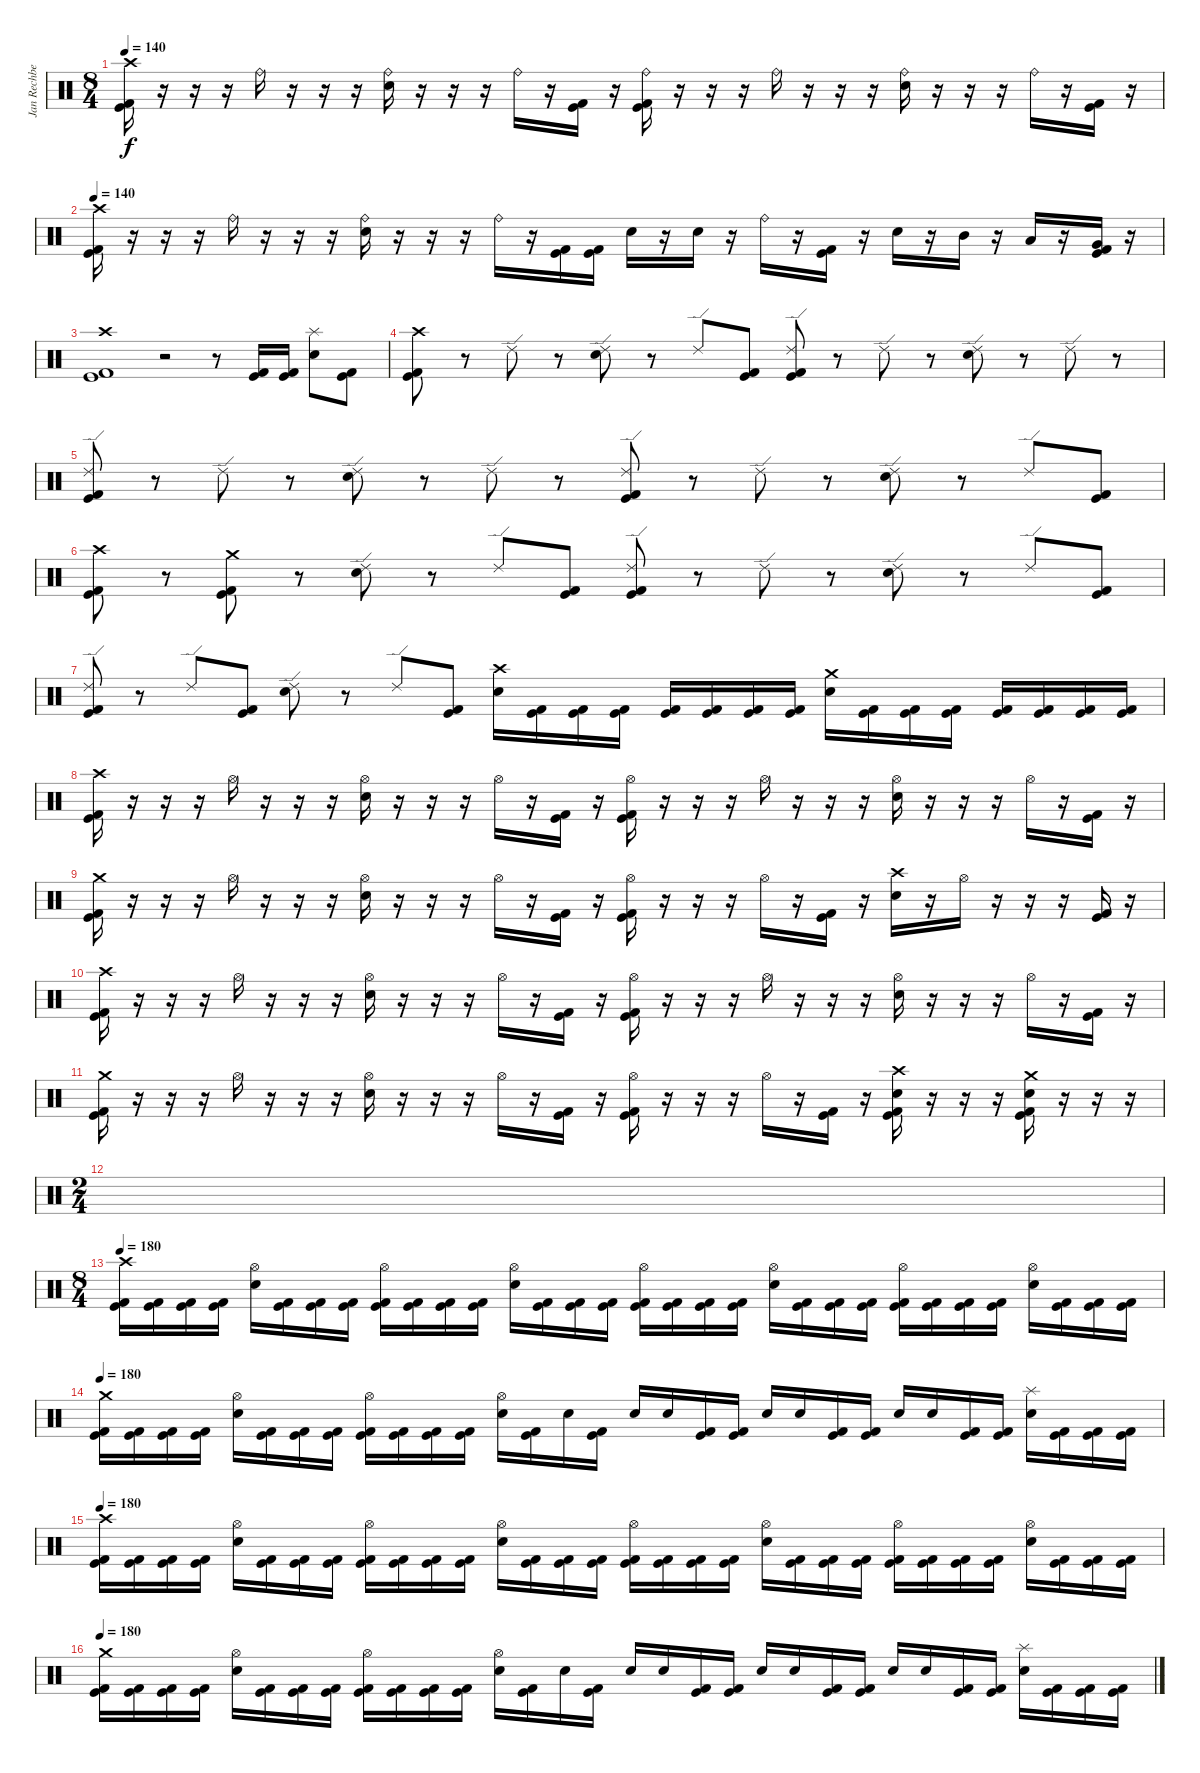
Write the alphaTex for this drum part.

\track ("Jan Rechberger" "Jan Rechbe") {instrument percussion}
\staff {score}
\articulation defaults
\ts (8 4)
\tempo 140
\clef neutral
\ks c
("Crash high (hit)" "Kick (hit) 2" "Kick (hit)").16{dy f} r.16 r.16 r.16 "Ride (bell)".16 r.16 r.16 r.16 ("Ride (bell)" "Electric Snare (hit)").16 r.16 r.16 r.16 "Ride (bell)".16 r.16 ("Kick (hit) 2" "Kick (hit)").16 r.16 ("Ride (bell)" "Kick (hit) 2" "Kick (hit)").16 r.16 r.16 r.16 "Ride (bell)".16 r.16 r.16 r.16 ("Ride (bell)" "Electric Snare (hit)").16 r.16 r.16 r.16 "Ride (bell)".16 r.16 ("Kick (hit) 2" "Kick (hit)").16 r.16 |
\tempo 140
("Crash high (hit)" "Kick (hit) 2" "Kick (hit)").16 r.16 r.16 r.16 "Ride (bell)".16 r.16 r.16 r.16 ("Ride (bell)" "Electric Snare (hit)").16 r.16 r.16 r.16 "Ride (bell)".16 r.16 ("Kick (hit) 2" "Kick (hit)").16 ("Kick (hit) 2" "Kick (hit)").16 "Electric Snare (hit)".16 r.16 "Electric Snare (hit)".16 r.16 "Ride (bell)".16 r.16 ("Kick (hit) 2" "Kick (hit)").16 r.16 "Electric Snare (hit)".16 r.16 "Mid Tom (hit)".16 r.16 "Low Tom (hit)".16 r.16 ("Very Low Tom (hit)" "Kick (hit) 2" "Kick (hit)").16 r.16 |
("Crash high (hit)" "Kick (hit) 2" "Kick (hit)").1 r.2 r.8 ("Kick (hit) 2" "Kick (hit)").16 ("Kick (hit) 2" "Kick (hit)").16 ("Splash (hit)" "Electric Snare (hit)").8 ("Kick (hit) 2" "Kick (hit)").8 |
("Crash high (hit)" "Kick (hit) 2" "Kick (hit)").8 r.8 "Ride (edge) 2".8 r.8 ("Ride (edge) 2" "Electric Snare (hit)").8 r.8 "Ride (edge) 2".8 ("Kick (hit) 2" "Kick (hit)").8 ("Ride (edge) 2" "Kick (hit) 2" "Kick (hit)").8 r.8 "Ride (edge) 2".8 r.8 ("Ride (edge) 2" "Electric Snare (hit)").8 r.8 "Ride (edge) 2".8 r.8 |
("Ride (edge) 2" "Kick (hit) 2" "Kick (hit)").8 r.8 "Ride (edge) 2".8 r.8 ("Ride (edge) 2" "Electric Snare (hit)").8 r.8 "Ride (edge) 2".8 r.8 ("Ride (edge) 2" "Kick (hit) 2" "Kick (hit)").8 r.8 "Ride (edge) 2".8 r.8 ("Ride (edge) 2" "Electric Snare (hit)").8 r.8 "Ride (edge) 2".8 ("Kick (hit) 2" "Kick (hit)").8 |
("Crash high (hit)" "Kick (hit) 2" "Kick (hit)").8 r.8 ("Crash medium (hit)" "Kick (hit) 2" "Kick (hit)").8 r.8 ("Ride (edge) 2" "Electric Snare (hit)").8 r.8 "Ride (edge) 2".8 ("Kick (hit) 2" "Kick (hit)").8 ("Ride (edge) 2" "Kick (hit) 2" "Kick (hit)").8 r.8 "Ride (edge) 2".8 r.8 ("Ride (edge) 2" "Electric Snare (hit)").8 r.8 "Ride (edge) 2".8 ("Kick (hit) 2" "Kick (hit)").8 |
("Ride (edge) 2" "Kick (hit) 2" "Kick (hit)").8 r.8 "Ride (edge) 2".8 ("Kick (hit) 2" "Kick (hit)").8 ("Ride (edge) 2" "Electric Snare (hit)").8 r.8 "Ride (edge) 2".8 ("Kick (hit) 2" "Kick (hit)").8 ("Crash high (hit)" "Electric Snare (hit)").16 ("Kick (hit) 2" "Kick (hit)").16 ("Kick (hit) 2" "Kick (hit)").16 ("Kick (hit) 2" "Kick (hit)").16 ("Kick (hit) 2" "Kick (hit)").16 ("Kick (hit) 2" "Kick (hit)").16 ("Kick (hit) 2" "Kick (hit)").16 ("Kick (hit) 2" "Kick (hit)").16 ("Crash medium (hit)" "Electric Snare (hit)").16 ("Kick (hit) 2" "Kick (hit)").16 ("Kick (hit) 2" "Kick (hit)").16 ("Kick (hit) 2" "Kick (hit)").16 ("Kick (hit) 2" "Kick (hit)").16 ("Kick (hit) 2" "Kick (hit)").16 ("Kick (hit) 2" "Kick (hit)").16 ("Kick (hit) 2" "Kick (hit)").16 |
("Crash high (hit)" "Kick (hit) 2" "Kick (hit)").16 r.16 r.16 r.16 "Hi-Hat (open)".16 r.16 r.16 r.16 ("Hi-Hat (open)" "Electric Snare (hit)").16 r.16 r.16 r.16 "Hi-Hat (open)".16 r.16 ("Kick (hit) 2" "Kick (hit)").16 r.16 ("Hi-Hat (open)" "Kick (hit) 2" "Kick (hit)").16 r.16 r.16 r.16 "Hi-Hat (open)".16 r.16 r.16 r.16 ("Hi-Hat (open)" "Electric Snare (hit)").16 r.16 r.16 r.16 "Hi-Hat (open)".16 r.16 ("Kick (hit) 2" "Kick (hit)").16 r.16 |
("Crash medium (hit)" "Kick (hit) 2" "Kick (hit)").16 r.16 r.16 r.16 "Hi-Hat (open)".16 r.16 r.16 r.16 ("Hi-Hat (open)" "Electric Snare (hit)").16 r.16 r.16 r.16 "Hi-Hat (open)".16 r.16 ("Kick (hit) 2" "Kick (hit)").16 r.16 ("Hi-Hat (open)" "Kick (hit) 2" "Kick (hit)").16 r.16 r.16 r.16 "Hi-Hat (open)".16 r.16 ("Kick (hit) 2" "Kick (hit)").16 r.16 ("Crash high (hit)" "Electric Snare (hit)").16 r.16 "Hi-Hat (open)".16 r.16 r.16 r.16 ("Kick (hit) 2" "Kick (hit)").16 r.16 |
("Crash high (hit)" "Kick (hit) 2" "Kick (hit)").16 r.16 r.16 r.16 "Hi-Hat (open)".16 r.16 r.16 r.16 ("Hi-Hat (open)" "Electric Snare (hit)").16 r.16 r.16 r.16 "Hi-Hat (open)".16 r.16 ("Kick (hit) 2" "Kick (hit)").16 r.16 ("Hi-Hat (open)" "Kick (hit) 2" "Kick (hit)").16 r.16 r.16 r.16 "Hi-Hat (open)".16 r.16 r.16 r.16 ("Hi-Hat (open)" "Electric Snare (hit)").16 r.16 r.16 r.16 "Hi-Hat (open)".16 r.16 ("Kick (hit) 2" "Kick (hit)").16 r.16 |
("Crash medium (hit)" "Kick (hit) 2" "Kick (hit)").16 r.16 r.16 r.16 "Hi-Hat (open)".16 r.16 r.16 r.16 ("Hi-Hat (open)" "Electric Snare (hit)").16 r.16 r.16 r.16 "Hi-Hat (open)".16 r.16 ("Kick (hit) 2" "Kick (hit)").16 r.16 ("Hi-Hat (open)" "Kick (hit) 2" "Kick (hit)").16 r.16 r.16 r.16 "Hi-Hat (open)".16 r.16 ("Kick (hit) 2" "Kick (hit)").16 r.16 ("Crash high (hit)" "Electric Snare (hit)" "Kick (hit) 2" "Kick (hit)").16 r.16 r.16 r.16 ("Crash medium (hit)" "Electric Snare (hit)" "Kick (hit) 2" "Kick (hit)").16 r.16 r.16 r.16 |
\ts (2 4)
|
\ts (8 4)
\tempo 180
("Crash high (hit)" "Kick (hit) 2" "Kick (hit)").16 ("Kick (hit) 2" "Kick (hit)").16 ("Kick (hit) 2" "Kick (hit)").16 ("Kick (hit) 2" "Kick (hit)").16 ("Hi-Hat (open)" "Electric Snare (hit)").16 ("Kick (hit) 2" "Kick (hit)").16 ("Kick (hit) 2" "Kick (hit)").16 ("Kick (hit) 2" "Kick (hit)").16 ("Hi-Hat (open)" "Kick (hit) 2" "Kick (hit)").16 ("Kick (hit) 2" "Kick (hit)").16 ("Kick (hit) 2" "Kick (hit)").16 ("Kick (hit) 2" "Kick (hit)").16 ("Hi-Hat (open)" "Electric Snare (hit)").16 ("Kick (hit) 2" "Kick (hit)").16 ("Kick (hit) 2" "Kick (hit)").16 ("Kick (hit) 2" "Kick (hit)").16 ("Hi-Hat (open)" "Kick (hit) 2" "Kick (hit)").16 ("Kick (hit) 2" "Kick (hit)").16 ("Kick (hit) 2" "Kick (hit)").16 ("Kick (hit) 2" "Kick (hit)").16 ("Hi-Hat (open)" "Electric Snare (hit)").16 ("Kick (hit) 2" "Kick (hit)").16 ("Kick (hit) 2" "Kick (hit)").16 ("Kick (hit) 2" "Kick (hit)").16 ("Hi-Hat (open)" "Kick (hit) 2" "Kick (hit)").16 ("Kick (hit) 2" "Kick (hit)").16 ("Kick (hit) 2" "Kick (hit)").16 ("Kick (hit) 2" "Kick (hit)").16 ("Hi-Hat (open)" "Electric Snare (hit)").16 ("Kick (hit) 2" "Kick (hit)").16 ("Kick (hit) 2" "Kick (hit)").16 ("Kick (hit) 2" "Kick (hit)").16 |
\tempo 180
("Crash medium (hit)" "Kick (hit) 2" "Kick (hit)").16 ("Kick (hit) 2" "Kick (hit)").16 ("Kick (hit) 2" "Kick (hit)").16 ("Kick (hit) 2" "Kick (hit)").16 ("Hi-Hat (open)" "Electric Snare (hit)").16 ("Kick (hit) 2" "Kick (hit)").16 ("Kick (hit) 2" "Kick (hit)").16 ("Kick (hit) 2" "Kick (hit)").16 ("Hi-Hat (open)" "Kick (hit) 2" "Kick (hit)").16 ("Kick (hit) 2" "Kick (hit)").16 ("Kick (hit) 2" "Kick (hit)").16 ("Kick (hit) 2" "Kick (hit)").16 ("Hi-Hat (open)" "Electric Snare (hit)").16 ("Kick (hit) 2" "Kick (hit)").16 "Electric Snare (hit)".16 ("Kick (hit) 2" "Kick (hit)").16 "Electric Snare (hit)".16 "Electric Snare (hit)".16 ("Kick (hit) 2" "Kick (hit)").16 ("Kick (hit) 2" "Kick (hit)").16 "Electric Snare (hit)".16 "Electric Snare (hit)".16 ("Kick (hit) 2" "Kick (hit)").16 ("Kick (hit) 2" "Kick (hit)").16 "Electric Snare (hit)".16 "Electric Snare (hit)".16 ("Kick (hit) 2" "Kick (hit)").16 ("Kick (hit) 2" "Kick (hit)").16 ("Splash (hit)" "Electric Snare (hit)").16 ("Kick (hit) 2" "Kick (hit)").16 ("Kick (hit) 2" "Kick (hit)").16 ("Kick (hit) 2" "Kick (hit)").16 |
\tempo 180
("Crash high (hit)" "Kick (hit) 2" "Kick (hit)").16 ("Kick (hit) 2" "Kick (hit)").16 ("Kick (hit) 2" "Kick (hit)").16 ("Kick (hit) 2" "Kick (hit)").16 ("Hi-Hat (open)" "Electric Snare (hit)").16 ("Kick (hit) 2" "Kick (hit)").16 ("Kick (hit) 2" "Kick (hit)").16 ("Kick (hit) 2" "Kick (hit)").16 ("Hi-Hat (open)" "Kick (hit) 2" "Kick (hit)").16 ("Kick (hit) 2" "Kick (hit)").16 ("Kick (hit) 2" "Kick (hit)").16 ("Kick (hit) 2" "Kick (hit)").16 ("Hi-Hat (open)" "Electric Snare (hit)").16 ("Kick (hit) 2" "Kick (hit)").16 ("Kick (hit) 2" "Kick (hit)").16 ("Kick (hit) 2" "Kick (hit)").16 ("Hi-Hat (open)" "Kick (hit) 2" "Kick (hit)").16 ("Kick (hit) 2" "Kick (hit)").16 ("Kick (hit) 2" "Kick (hit)").16 ("Kick (hit) 2" "Kick (hit)").16 ("Hi-Hat (open)" "Electric Snare (hit)").16 ("Kick (hit) 2" "Kick (hit)").16 ("Kick (hit) 2" "Kick (hit)").16 ("Kick (hit) 2" "Kick (hit)").16 ("Hi-Hat (open)" "Kick (hit) 2" "Kick (hit)").16 ("Kick (hit) 2" "Kick (hit)").16 ("Kick (hit) 2" "Kick (hit)").16 ("Kick (hit) 2" "Kick (hit)").16 ("Hi-Hat (open)" "Electric Snare (hit)").16 ("Kick (hit) 2" "Kick (hit)").16 ("Kick (hit) 2" "Kick (hit)").16 ("Kick (hit) 2" "Kick (hit)").16 |
\tempo 180
("Crash medium (hit)" "Kick (hit) 2" "Kick (hit)").16 ("Kick (hit) 2" "Kick (hit)").16 ("Kick (hit) 2" "Kick (hit)").16 ("Kick (hit) 2" "Kick (hit)").16 ("Hi-Hat (open)" "Electric Snare (hit)").16 ("Kick (hit) 2" "Kick (hit)").16 ("Kick (hit) 2" "Kick (hit)").16 ("Kick (hit) 2" "Kick (hit)").16 ("Hi-Hat (open)" "Kick (hit) 2" "Kick (hit)").16 ("Kick (hit) 2" "Kick (hit)").16 ("Kick (hit) 2" "Kick (hit)").16 ("Kick (hit) 2" "Kick (hit)").16 ("Hi-Hat (open)" "Electric Snare (hit)").16 ("Kick (hit) 2" "Kick (hit)").16 "Electric Snare (hit)".16 ("Kick (hit) 2" "Kick (hit)").16 "Electric Snare (hit)".16 "Electric Snare (hit)".16 ("Kick (hit) 2" "Kick (hit)").16 ("Kick (hit) 2" "Kick (hit)").16 "Electric Snare (hit)".16 "Electric Snare (hit)".16 ("Kick (hit) 2" "Kick (hit)").16 ("Kick (hit) 2" "Kick (hit)").16 "Electric Snare (hit)".16 "Electric Snare (hit)".16 ("Kick (hit) 2" "Kick (hit)").16 ("Kick (hit) 2" "Kick (hit)").16 ("Splash (hit)" "Electric Snare (hit)").16 ("Kick (hit) 2" "Kick (hit)").16 ("Kick (hit) 2" "Kick (hit)").16 ("Kick (hit) 2" "Kick (hit)").16
